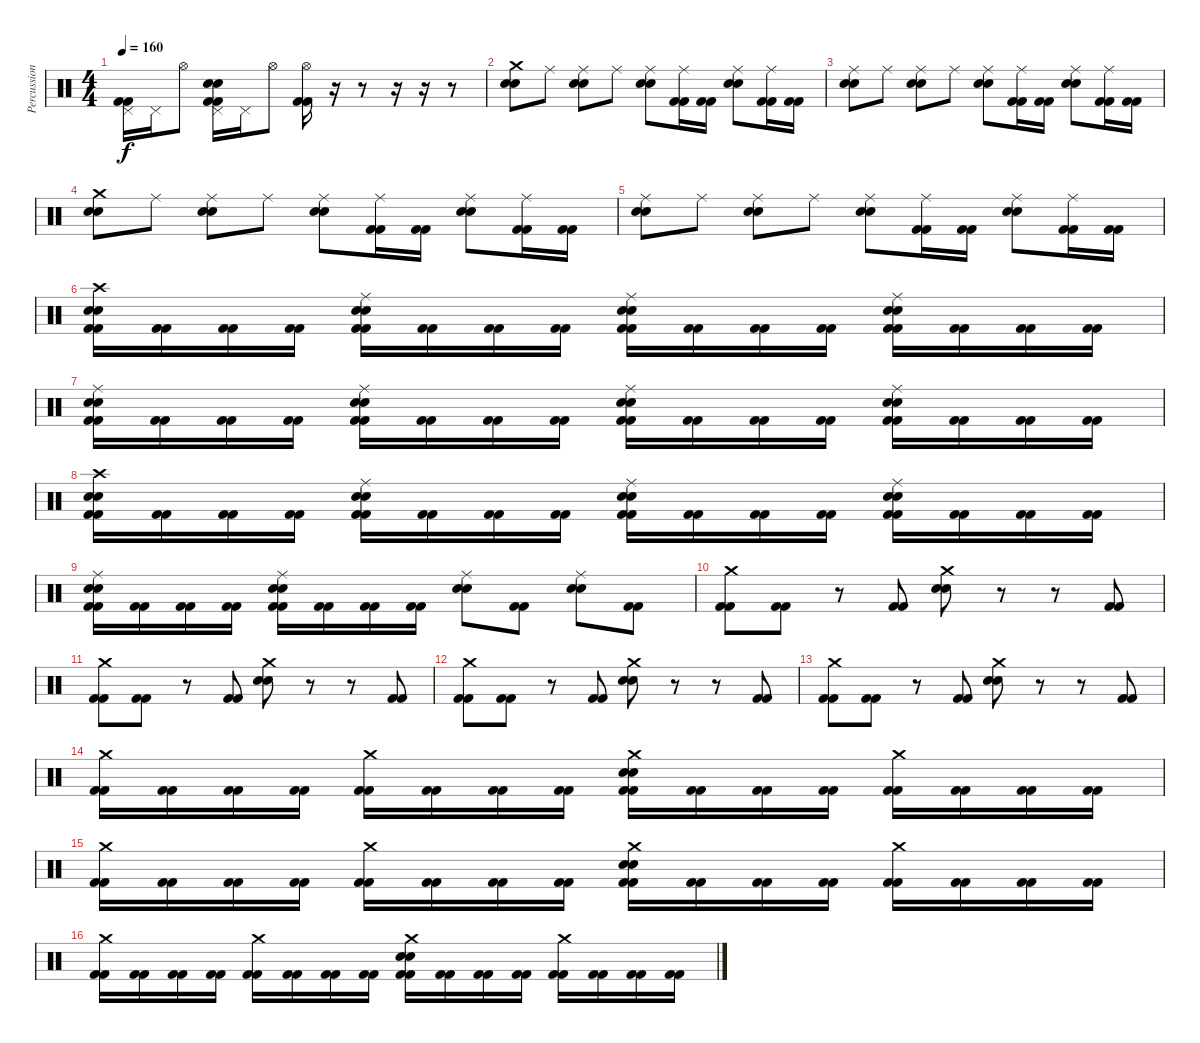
\track ("Percussion" "Percussion") {instrument percussion}
\staff {score}
\articulation defaults
\ts (4 4)
\tempo 160
\clef neutral
\ks c
("Pedal Hi-Hat (hit)" "Kick (hit) 2" "Kick (hit) 2").16{dy f} "Pedal Hi-Hat (hit)".16 "Hi-Hat (open)".8 ("Snare (hit) 2" "Snare (hit) 2" "Pedal Hi-Hat (hit)" "Kick (hit) 2" "Kick (hit) 2").16 "Pedal Hi-Hat (hit)".16 "Hi-Hat (open)".8 ("Hi-Hat (open)" "Kick (hit) 2" "Kick (hit) 2").16 r.16 r.8 r.16 r.16 r.8 |
("Crash medium (hit)" "Snare (hit) 2" "Snare (hit) 2").8 "Ride (middle)".8 ("Ride (middle)" "Snare (hit) 2" "Snare (hit) 2").8 "Ride (middle)".8 ("Ride (middle)" "Snare (hit) 2" "Snare (hit) 2").8 ("Ride (middle)" "Kick (hit) 2" "Kick (hit) 2").16 ("Kick (hit) 2" "Kick (hit) 2").16 ("Ride (middle)" "Snare (hit) 2" "Snare (hit) 2").8 ("Ride (middle)" "Kick (hit) 2" "Kick (hit) 2").16 ("Kick (hit) 2" "Kick (hit) 2").16 |
("Ride (middle)" "Snare (hit) 2" "Snare (hit) 2").8 "Ride (middle)".8 ("Ride (middle)" "Snare (hit) 2" "Snare (hit) 2").8 "Ride (middle)".8 ("Ride (middle)" "Snare (hit) 2" "Snare (hit) 2").8 ("Ride (middle)" "Kick (hit) 2" "Kick (hit) 2").16 ("Kick (hit) 2" "Kick (hit) 2").16 ("Ride (middle)" "Snare (hit) 2" "Snare (hit) 2").8 ("Ride (middle)" "Kick (hit) 2" "Kick (hit) 2").16 ("Kick (hit) 2" "Kick (hit) 2").16 |
("Crash medium (hit)" "Snare (hit) 2" "Snare (hit) 2").8 "Ride (middle)".8 ("Ride (middle)" "Snare (hit) 2" "Snare (hit) 2").8 "Ride (middle)".8 ("Ride (middle)" "Snare (hit) 2" "Snare (hit) 2").8 ("Ride (middle)" "Kick (hit) 2" "Kick (hit) 2").16 ("Kick (hit) 2" "Kick (hit) 2").16 ("Ride (middle)" "Snare (hit) 2" "Snare (hit) 2").8 ("Ride (middle)" "Kick (hit) 2" "Kick (hit) 2").16 ("Kick (hit) 2" "Kick (hit) 2").16 |
("Ride (middle)" "Snare (hit) 2" "Snare (hit) 2").8 "Ride (middle)".8 ("Ride (middle)" "Snare (hit) 2" "Snare (hit) 2").8 "Ride (middle)".8 ("Ride (middle)" "Snare (hit) 2" "Snare (hit) 2").8 ("Ride (middle)" "Kick (hit) 2" "Kick (hit) 2").16 ("Kick (hit) 2" "Kick (hit) 2").16 ("Ride (middle)" "Snare (hit) 2" "Snare (hit) 2").8 ("Ride (middle)" "Kick (hit) 2" "Kick (hit) 2").16 ("Kick (hit) 2" "Kick (hit) 2").16 |
("Crash high (hit)" "Snare (hit) 2" "Snare (hit) 2" "Kick (hit) 2" "Kick (hit) 2").16 ("Kick (hit) 2" "Kick (hit) 2").16 ("Kick (hit) 2" "Kick (hit) 2").16 ("Kick (hit) 2" "Kick (hit) 2").16 ("Ride (middle)" "Snare (hit) 2" "Snare (hit) 2" "Kick (hit) 2" "Kick (hit) 2").16 ("Kick (hit) 2" "Kick (hit) 2").16 ("Kick (hit) 2" "Kick (hit) 2").16 ("Kick (hit) 2" "Kick (hit) 2").16 ("Ride (middle)" "Snare (hit) 2" "Snare (hit) 2" "Kick (hit) 2" "Kick (hit) 2").16 ("Kick (hit) 2" "Kick (hit) 2").16 ("Kick (hit) 2" "Kick (hit) 2").16 ("Kick (hit) 2" "Kick (hit) 2").16 ("Ride (middle)" "Snare (hit) 2" "Snare (hit) 2" "Kick (hit) 2" "Kick (hit) 2").16 ("Kick (hit) 2" "Kick (hit) 2").16 ("Kick (hit) 2" "Kick (hit) 2").16 ("Kick (hit) 2" "Kick (hit) 2").16 |
("Ride (middle)" "Snare (hit) 2" "Snare (hit) 2" "Kick (hit) 2" "Kick (hit) 2").16 ("Kick (hit) 2" "Kick (hit) 2").16 ("Kick (hit) 2" "Kick (hit) 2").16 ("Kick (hit) 2" "Kick (hit) 2").16 ("Ride (middle)" "Snare (hit) 2" "Snare (hit) 2" "Kick (hit) 2" "Kick (hit) 2").16 ("Kick (hit) 2" "Kick (hit) 2").16 ("Kick (hit) 2" "Kick (hit) 2").16 ("Kick (hit) 2" "Kick (hit) 2").16 ("Ride (middle)" "Snare (hit) 2" "Snare (hit) 2" "Kick (hit) 2" "Kick (hit) 2").16 ("Kick (hit) 2" "Kick (hit) 2").16 ("Kick (hit) 2" "Kick (hit) 2").16 ("Kick (hit) 2" "Kick (hit) 2").16 ("Ride (middle)" "Snare (hit) 2" "Snare (hit) 2" "Kick (hit) 2" "Kick (hit) 2").16 ("Kick (hit) 2" "Kick (hit) 2").16 ("Kick (hit) 2" "Kick (hit) 2").16 ("Kick (hit) 2" "Kick (hit) 2").16 |
("Crash high (hit)" "Snare (hit) 2" "Snare (hit) 2" "Kick (hit) 2" "Kick (hit) 2").16 ("Kick (hit) 2" "Kick (hit) 2").16 ("Kick (hit) 2" "Kick (hit) 2").16 ("Kick (hit) 2" "Kick (hit) 2").16 ("Ride (middle)" "Snare (hit) 2" "Snare (hit) 2" "Kick (hit) 2" "Kick (hit) 2").16 ("Kick (hit) 2" "Kick (hit) 2").16 ("Kick (hit) 2" "Kick (hit) 2").16 ("Kick (hit) 2" "Kick (hit) 2").16 ("Ride (middle)" "Snare (hit) 2" "Snare (hit) 2" "Kick (hit) 2" "Kick (hit) 2").16 ("Kick (hit) 2" "Kick (hit) 2").16 ("Kick (hit) 2" "Kick (hit) 2").16 ("Kick (hit) 2" "Kick (hit) 2").16 ("Ride (middle)" "Snare (hit) 2" "Snare (hit) 2" "Kick (hit) 2" "Kick (hit) 2").16 ("Kick (hit) 2" "Kick (hit) 2").16 ("Kick (hit) 2" "Kick (hit) 2").16 ("Kick (hit) 2" "Kick (hit) 2").16 |
("Ride (middle)" "Snare (hit) 2" "Snare (hit) 2" "Kick (hit) 2" "Kick (hit) 2").16 ("Kick (hit) 2" "Kick (hit) 2").16 ("Kick (hit) 2" "Kick (hit) 2").16 ("Kick (hit) 2" "Kick (hit) 2").16 ("Ride (middle)" "Snare (hit) 2" "Snare (hit) 2" "Kick (hit) 2" "Kick (hit) 2").16 ("Kick (hit) 2" "Kick (hit) 2").16 ("Kick (hit) 2" "Kick (hit) 2").16 ("Kick (hit) 2" "Kick (hit) 2").16 ("Ride (middle)" "Snare (hit) 2" "Snare (hit) 2").8 ("Kick (hit) 2" "Kick (hit) 2").8 ("Ride (middle)" "Snare (hit) 2" "Snare (hit) 2").8 ("Kick (hit) 2" "Kick (hit) 2").8 |
("Crash medium (hit)" "Kick (hit) 2" "Kick (hit) 2").8 ("Kick (hit) 2" "Kick (hit) 2").8 r.8 ("Kick (hit) 2" "Kick (hit) 2").8 ("Crash medium (hit)" "Snare (hit) 2" "Snare (hit) 2").8 r.8 r.8 ("Kick (hit) 2" "Kick (hit) 2").8 |
("Crash medium (hit)" "Kick (hit) 2" "Kick (hit) 2").8 ("Kick (hit) 2" "Kick (hit) 2").8 r.8 ("Kick (hit) 2" "Kick (hit) 2").8 ("Crash medium (hit)" "Snare (hit) 2" "Snare (hit) 2").8 r.8 r.8 ("Kick (hit) 2" "Kick (hit) 2").8 |
("Crash medium (hit)" "Kick (hit) 2" "Kick (hit) 2").8 ("Kick (hit) 2" "Kick (hit) 2").8 r.8 ("Kick (hit) 2" "Kick (hit) 2").8 ("Crash medium (hit)" "Snare (hit) 2" "Snare (hit) 2").8 r.8 r.8 ("Kick (hit) 2" "Kick (hit) 2").8 |
("Crash medium (hit)" "Kick (hit) 2" "Kick (hit) 2").8 ("Kick (hit) 2" "Kick (hit) 2").8 r.8 ("Kick (hit) 2" "Kick (hit) 2").8 ("Crash medium (hit)" "Snare (hit) 2" "Snare (hit) 2").8 r.8 r.8 ("Kick (hit) 2" "Kick (hit) 2").8 |
("Crash medium (hit)" "Kick (hit) 2" "Kick (hit) 2").16 ("Kick (hit) 2" "Kick (hit) 2").16 ("Kick (hit) 2" "Kick (hit) 2").16 ("Kick (hit) 2" "Kick (hit) 2").16 ("Crash medium (hit)" "Kick (hit) 2" "Kick (hit) 2").16 ("Kick (hit) 2" "Kick (hit) 2").16 ("Kick (hit) 2" "Kick (hit) 2").16 ("Kick (hit) 2" "Kick (hit) 2").16 ("Crash medium (hit)" "Snare (hit) 2" "Snare (hit) 2" "Kick (hit) 2" "Kick (hit) 2").16 ("Kick (hit) 2" "Kick (hit) 2").16 ("Kick (hit) 2" "Kick (hit) 2").16 ("Kick (hit) 2" "Kick (hit) 2").16 ("Crash medium (hit)" "Kick (hit) 2" "Kick (hit) 2").16 ("Kick (hit) 2" "Kick (hit) 2").16 ("Kick (hit) 2" "Kick (hit) 2").16 ("Kick (hit) 2" "Kick (hit) 2").16 |
("Crash medium (hit)" "Kick (hit) 2" "Kick (hit) 2").16 ("Kick (hit) 2" "Kick (hit) 2").16 ("Kick (hit) 2" "Kick (hit) 2").16 ("Kick (hit) 2" "Kick (hit) 2").16 ("Crash medium (hit)" "Kick (hit) 2" "Kick (hit) 2").16 ("Kick (hit) 2" "Kick (hit) 2").16 ("Kick (hit) 2" "Kick (hit) 2").16 ("Kick (hit) 2" "Kick (hit) 2").16 ("Crash medium (hit)" "Snare (hit) 2" "Snare (hit) 2" "Kick (hit) 2" "Kick (hit) 2").16 ("Kick (hit) 2" "Kick (hit) 2").16 ("Kick (hit) 2" "Kick (hit) 2").16 ("Kick (hit) 2" "Kick (hit) 2").16 ("Crash medium (hit)" "Kick (hit) 2" "Kick (hit) 2").16 ("Kick (hit) 2" "Kick (hit) 2").16 ("Kick (hit) 2" "Kick (hit) 2").16 ("Kick (hit) 2" "Kick (hit) 2").16 |
("Crash medium (hit)" "Kick (hit) 2" "Kick (hit) 2").16 ("Kick (hit) 2" "Kick (hit) 2").16 ("Kick (hit) 2" "Kick (hit) 2").16 ("Kick (hit) 2" "Kick (hit) 2").16 ("Crash medium (hit)" "Kick (hit) 2" "Kick (hit) 2").16 ("Kick (hit) 2" "Kick (hit) 2").16 ("Kick (hit) 2" "Kick (hit) 2").16 ("Kick (hit) 2" "Kick (hit) 2").16 ("Crash medium (hit)" "Snare (hit) 2" "Snare (hit) 2" "Kick (hit) 2" "Kick (hit) 2").16 ("Kick (hit) 2" "Kick (hit) 2").16 ("Kick (hit) 2" "Kick (hit) 2").16 ("Kick (hit) 2" "Kick (hit) 2").16 ("Crash medium (hit)" "Kick (hit) 2" "Kick (hit) 2").16 ("Kick (hit) 2" "Kick (hit) 2").16 ("Kick (hit) 2" "Kick (hit) 2").16 ("Kick (hit) 2" "Kick (hit) 2").16
